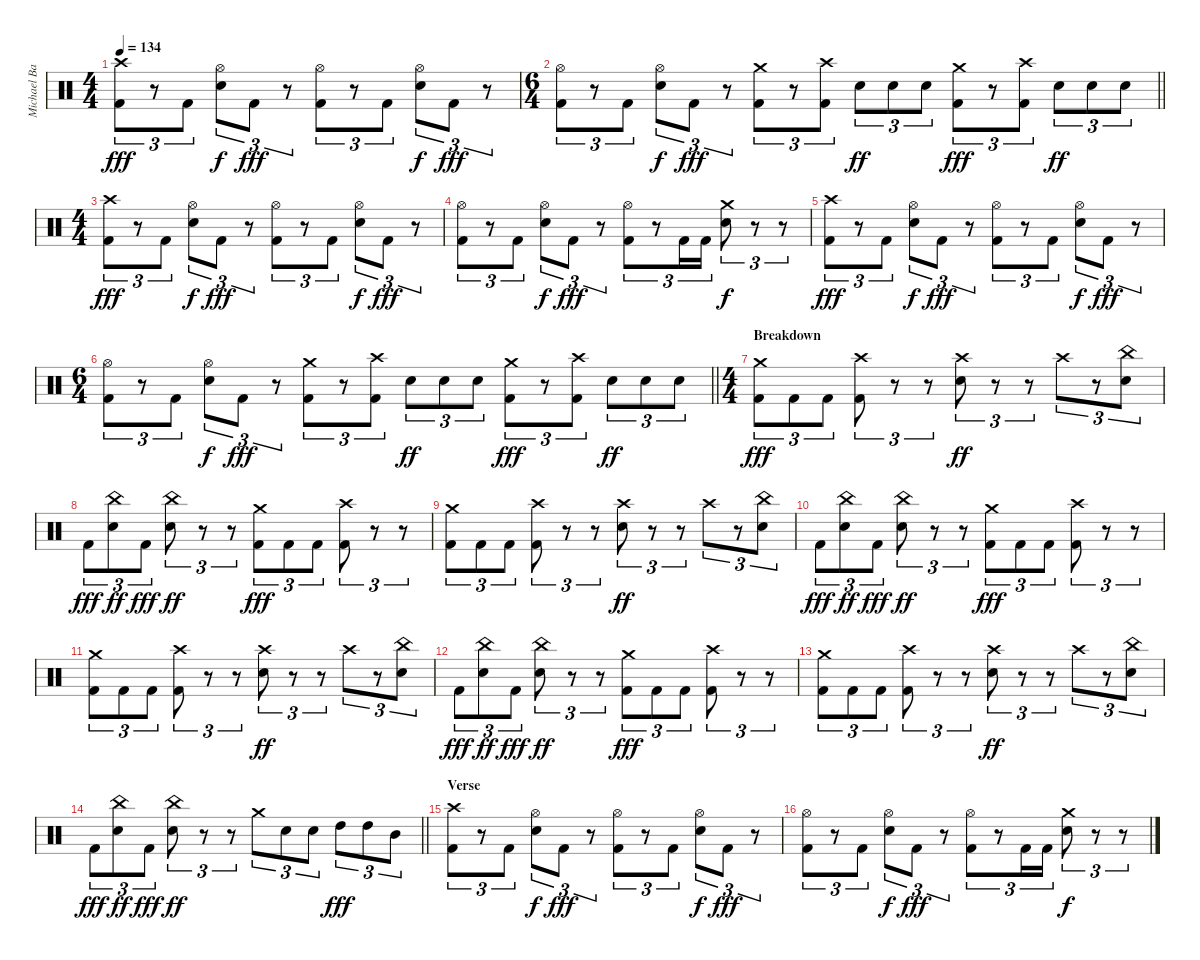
\track ("Michael Bartlett " "Michael Ba") {instrument percussion}
\staff {score}
\articulation defaults
\ts (4 4)
\tempo 134
\clef neutral
\ks c
("Crash high (hit)" "Kick (hit) 2").8{tu (3 2) dy fff} r.8{tu (3 2)} "Kick (hit) 2".8{tu (3 2)} ("Hi-Hat (open)" "Electric Snare (hit)").8{tu (3 2) dy f} "Kick (hit) 2".8{tu (3 2) dy fff} r.8{tu (3 2)} ("Hi-Hat (open)" "Kick (hit) 2").8{tu (3 2)} r.8{tu (3 2)} "Kick (hit) 2".8{tu (3 2)} ("Hi-Hat (open)" "Electric Snare (hit)").8{tu (3 2) dy f} "Kick (hit) 2".8{tu (3 2) dy fff} r.8{tu (3 2)} |
\ts (6 4)
\barLineRight lightlight
("Hi-Hat (open)" "Kick (hit) 2").8{tu (3 2)} r.8{tu (3 2)} "Kick (hit) 2".8{tu (3 2)} ("Hi-Hat (open)" "Electric Snare (hit)").8{tu (3 2) dy f} "Kick (hit) 2".8{tu (3 2) dy fff} r.8{tu (3 2)} ("Crash medium (hit)" "Kick (hit) 2").8{tu (3 2)} r.8{tu (3 2)} ("Crash high (hit)" "Kick (hit) 2").8{tu (3 2)} "Electric Snare (hit)".8{tu (3 2) dy ff} "Electric Snare (hit)".8{tu (3 2)} "Electric Snare (hit)".8{tu (3 2)} ("Crash medium (hit)" "Kick (hit) 2").8{tu (3 2) dy fff} r.8{tu (3 2)} ("Crash high (hit)" "Kick (hit) 2").8{tu (3 2)} "Electric Snare (hit)".8{tu (3 2) dy ff} "Electric Snare (hit)".8{tu (3 2)} "Electric Snare (hit)".8{tu (3 2)} |
\ts (4 4)
("Crash high (hit)" "Kick (hit) 2").8{tu (3 2) dy fff} r.8{tu (3 2)} "Kick (hit) 2".8{tu (3 2)} ("Hi-Hat (open)" "Electric Snare (hit)").8{tu (3 2) dy f} "Kick (hit) 2".8{tu (3 2) dy fff} r.8{tu (3 2)} ("Hi-Hat (open)" "Kick (hit) 2").8{tu (3 2)} r.8{tu (3 2)} "Kick (hit) 2".8{tu (3 2)} ("Hi-Hat (open)" "Electric Snare (hit)").8{tu (3 2) dy f} "Kick (hit) 2".8{tu (3 2) dy fff} r.8{tu (3 2)} |
("Hi-Hat (open)" "Kick (hit) 2").8{tu (3 2)} r.8{tu (3 2)} "Kick (hit) 2".8{tu (3 2)} ("Hi-Hat (open)" "Electric Snare (hit)").8{tu (3 2) dy f} "Kick (hit) 2".8{tu (3 2) dy fff} r.8{tu (3 2)} ("Hi-Hat (open)" "Kick (hit) 2").8{tu (3 2)} r.8{tu (3 2)} "Kick (hit) 2".16{tu (3 2)} "Kick (hit) 2".16{tu (3 2)} ("Crash medium (hit)" "Electric Snare (hit)").8{tu (3 2) dy f} r.8{tu (3 2)} r.8{tu (3 2)} |
("Crash high (hit)" "Kick (hit) 2").8{tu (3 2) dy fff} r.8{tu (3 2)} "Kick (hit) 2".8{tu (3 2)} ("Hi-Hat (open)" "Electric Snare (hit)").8{tu (3 2) dy f} "Kick (hit) 2".8{tu (3 2) dy fff} r.8{tu (3 2)} ("Hi-Hat (open)" "Kick (hit) 2").8{tu (3 2)} r.8{tu (3 2)} "Kick (hit) 2".8{tu (3 2)} ("Hi-Hat (open)" "Electric Snare (hit)").8{tu (3 2) dy f} "Kick (hit) 2".8{tu (3 2) dy fff} r.8{tu (3 2)} |
\ts (6 4)
\barLineRight lightlight
("Hi-Hat (open)" "Kick (hit) 2").8{tu (3 2)} r.8{tu (3 2)} "Kick (hit) 2".8{tu (3 2)} ("Hi-Hat (open)" "Electric Snare (hit)").8{tu (3 2) dy f} "Kick (hit) 2".8{tu (3 2) dy fff} r.8{tu (3 2)} ("Crash medium (hit)" "Kick (hit) 2").8{tu (3 2)} r.8{tu (3 2)} ("Crash high (hit)" "Kick (hit) 2").8{tu (3 2)} "Electric Snare (hit)".8{tu (3 2) dy ff} "Electric Snare (hit)".8{tu (3 2)} "Electric Snare (hit)".8{tu (3 2)} ("Crash medium (hit)" "Kick (hit) 2").8{tu (3 2) dy fff} r.8{tu (3 2)} ("Crash high (hit)" "Kick (hit) 2").8{tu (3 2)} "Electric Snare (hit)".8{tu (3 2) dy ff} "Electric Snare (hit)".8{tu (3 2)} "Electric Snare (hit)".8{tu (3 2)} |
\ts (4 4)
\section ("" "Breakdown")
("Crash medium (hit)" "Kick (hit) 2").8{tu (3 2) dy fff} "Kick (hit) 2".8{tu (3 2)} "Kick (hit) 2".8{tu (3 2)} ("Crash high (hit)" "Kick (hit) 2").8{tu (3 2)} r.8{tu (3 2)} r.8{tu (3 2)} ("Crash high (hit)" "Electric Snare (hit)").8{tu (3 2) dy ff} r.8{tu (3 2)} r.8{tu (3 2)} "Crash high (hit)".8{tu (3 2)} r.8{tu (3 2)} ("China (hit)" "Electric Snare (hit)").8{tu (3 2)} |
"Kick (hit) 2".8{tu (3 2) dy fff} ("China (hit)" "Electric Snare (hit)").8{tu (3 2) dy ff} "Kick (hit) 2".8{tu (3 2) dy fff} ("China (hit)" "Electric Snare (hit)").8{tu (3 2) dy ff} r.8{tu (3 2)} r.8{tu (3 2)} ("Crash medium (hit)" "Kick (hit) 2").8{tu (3 2) dy fff} "Kick (hit) 2".8{tu (3 2)} "Kick (hit) 2".8{tu (3 2)} ("Crash high (hit)" "Kick (hit) 2").8{tu (3 2)} r.8{tu (3 2)} r.8{tu (3 2)} |
("Crash medium (hit)" "Kick (hit) 2").8{tu (3 2)} "Kick (hit) 2".8{tu (3 2)} "Kick (hit) 2".8{tu (3 2)} ("Crash high (hit)" "Kick (hit) 2").8{tu (3 2)} r.8{tu (3 2)} r.8{tu (3 2)} ("Crash high (hit)" "Electric Snare (hit)").8{tu (3 2) dy ff} r.8{tu (3 2)} r.8{tu (3 2)} "Crash high (hit)".8{tu (3 2)} r.8{tu (3 2)} ("China (hit)" "Electric Snare (hit)").8{tu (3 2)} |
"Kick (hit) 2".8{tu (3 2) dy fff} ("China (hit)" "Electric Snare (hit)").8{tu (3 2) dy ff} "Kick (hit) 2".8{tu (3 2) dy fff} ("China (hit)" "Electric Snare (hit)").8{tu (3 2) dy ff} r.8{tu (3 2)} r.8{tu (3 2)} ("Crash medium (hit)" "Kick (hit) 2").8{tu (3 2) dy fff} "Kick (hit) 2".8{tu (3 2)} "Kick (hit) 2".8{tu (3 2)} ("Crash high (hit)" "Kick (hit) 2").8{tu (3 2)} r.8{tu (3 2)} r.8{tu (3 2)} |
("Crash medium (hit)" "Kick (hit) 2").8{tu (3 2)} "Kick (hit) 2".8{tu (3 2)} "Kick (hit) 2".8{tu (3 2)} ("Crash high (hit)" "Kick (hit) 2").8{tu (3 2)} r.8{tu (3 2)} r.8{tu (3 2)} ("Crash high (hit)" "Electric Snare (hit)").8{tu (3 2) dy ff} r.8{tu (3 2)} r.8{tu (3 2)} "Crash high (hit)".8{tu (3 2)} r.8{tu (3 2)} ("China (hit)" "Electric Snare (hit)").8{tu (3 2)} |
"Kick (hit) 2".8{tu (3 2) dy fff} ("China (hit)" "Electric Snare (hit)").8{tu (3 2) dy ff} "Kick (hit) 2".8{tu (3 2) dy fff} ("China (hit)" "Electric Snare (hit)").8{tu (3 2) dy ff} r.8{tu (3 2)} r.8{tu (3 2)} ("Crash medium (hit)" "Kick (hit) 2").8{tu (3 2) dy fff} "Kick (hit) 2".8{tu (3 2)} "Kick (hit) 2".8{tu (3 2)} ("Crash high (hit)" "Kick (hit) 2").8{tu (3 2)} r.8{tu (3 2)} r.8{tu (3 2)} |
("Crash medium (hit)" "Kick (hit) 2").8{tu (3 2)} "Kick (hit) 2".8{tu (3 2)} "Kick (hit) 2".8{tu (3 2)} ("Crash high (hit)" "Kick (hit) 2").8{tu (3 2)} r.8{tu (3 2)} r.8{tu (3 2)} ("Crash high (hit)" "Electric Snare (hit)").8{tu (3 2) dy ff} r.8{tu (3 2)} r.8{tu (3 2)} "Crash high (hit)".8{tu (3 2)} r.8{tu (3 2)} ("China (hit)" "Electric Snare (hit)").8{tu (3 2)} |
\barLineRight lightlight "Kick (hit) 2".8{tu (3 2) dy fff}
("China (hit)" "Electric Snare (hit)").8{tu (3 2) dy ff} "Kick (hit) 2".8{tu (3 2) dy fff} ("China (hit)" "Electric Snare (hit)").8{tu (3 2) dy ff} r.8{tu (3 2)} r.8{tu (3 2)} "Crash medium (hit)".8{tu (3 2)} "Electric Snare (hit)".8{tu (3 2)} "Electric Snare (hit)".8{tu (3 2)} "High Tom (hit)".8{tu (3 2) dy fff} "High Tom (hit)".8{tu (3 2)} "Mid Tom (hit)".8{tu (3 2)} |
\section ("" "Verse")
("Crash high (hit)" "Kick (hit) 2").8{tu (3 2)} r.8{tu (3 2)} "Kick (hit) 2".8{tu (3 2)} ("Hi-Hat (open)" "Electric Snare (hit)").8{tu (3 2) dy f} "Kick (hit) 2".8{tu (3 2) dy fff} r.8{tu (3 2)} ("Hi-Hat (open)" "Kick (hit) 2").8{tu (3 2)} r.8{tu (3 2)} "Kick (hit) 2".8{tu (3 2)} ("Hi-Hat (open)" "Electric Snare (hit)").8{tu (3 2) dy f} "Kick (hit) 2".8{tu (3 2) dy fff} r.8{tu (3 2)} |
("Hi-Hat (open)" "Kick (hit) 2").8{tu (3 2)} r.8{tu (3 2)} "Kick (hit) 2".8{tu (3 2)} ("Hi-Hat (open)" "Electric Snare (hit)").8{tu (3 2) dy f} "Kick (hit) 2".8{tu (3 2) dy fff} r.8{tu (3 2)} ("Hi-Hat (open)" "Kick (hit) 2").8{tu (3 2)} r.8{tu (3 2)} "Kick (hit) 2".16{tu (3 2)} "Kick (hit) 2".16{tu (3 2)} ("Crash medium (hit)" "Electric Snare (hit)").8{tu (3 2) dy f} r.8{tu (3 2)} r.8{tu (3 2)}
